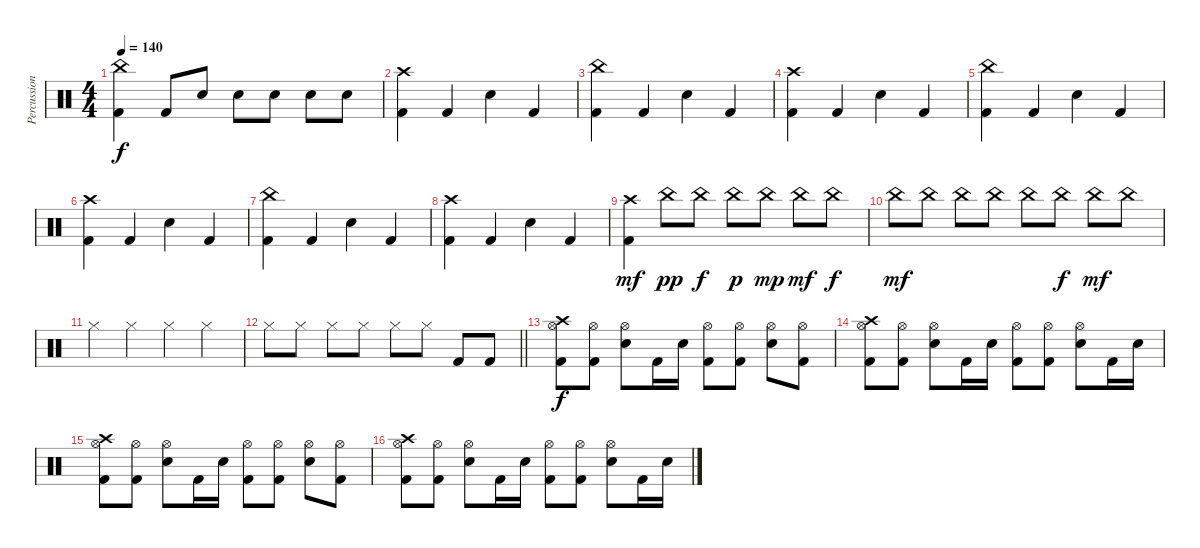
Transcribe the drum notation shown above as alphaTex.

\track ("Percussion" "Percussion") {instrument percussion}
\staff {score}
\articulation defaults
\ts (4 4)
\tempo 140
\clef neutral
\ks c
("Kick (hit) 2" "China (hit)").4{dy f} "Kick (hit) 2".8 "Snare (hit) 2".8 "Snare (hit) 2".8 "Snare (hit) 2".8 "Snare (hit) 2".8 "Snare (hit) 2".8 |
("Kick (hit) 2" "Crash high (hit)").4 "Kick (hit) 2".4 "Snare (hit) 2".4 "Kick (hit) 2".4 |
("Kick (hit) 2" "China (hit)").4 "Kick (hit) 2".4 "Snare (hit) 2".4 "Kick (hit) 2".4 |
("Kick (hit) 2" "Crash high (hit)").4 "Kick (hit) 2".4 "Snare (hit) 2".4 "Kick (hit) 2".4 |
("Kick (hit) 2" "China (hit)").4 "Kick (hit) 2".4 "Snare (hit) 2".4 "Kick (hit) 2".4 |
("Kick (hit) 2" "Crash high (hit)").4 "Kick (hit) 2".4 "Snare (hit) 2".4 "Kick (hit) 2".4 |
("Kick (hit) 2" "China (hit)").4 "Kick (hit) 2".4 "Snare (hit) 2".4 "Kick (hit) 2".4 |
("Kick (hit) 2" "Crash high (hit)").4 "Kick (hit) 2".4 "Snare (hit) 2".4 "Kick (hit) 2".4 |
("Kick (hit) 2" "Crash high (hit)").4{dy mf} "China (hit)".8{dy pp} "China (hit)".8{dy f} "China (hit)".8{dy p} "China (hit)".8{dy mp} "China (hit)".8{dy mf} "China (hit)".8{dy f} |
"China (hit)".8{dy mf} "China (hit)".8 "China (hit)".8 "China (hit)".8 "China (hit)".8 "China (hit)".8{dy f} "China (hit)".8{dy mf} "China (hit)".8 |
"Hi-Hat (closed)".4 "Hi-Hat (closed)".4 "Hi-Hat (closed)".4 "Hi-Hat (closed)".4 |
\barLineRight lightlight "Hi-Hat (closed)".8 "Hi-Hat (closed)".8 "Hi-Hat (closed)".8 "Hi-Hat (closed)".8 "Hi-Hat (closed)".8 "Hi-Hat (closed)".8 "Kick (hit) 2".8 "Kick (hit) 2".8
|
\section ("" "")
("Hi-Hat (open)" "Crash high (hit)" "Kick (hit) 2").8{dy f} ("Hi-Hat (open)" "Kick (hit) 2").8 ("Hi-Hat (open)" "Snare (hit) 2").8 "Kick (hit) 2".16 "Snare (hit) 2".16 ("Hi-Hat (open)" "Kick (hit) 2").8 ("Hi-Hat (open)" "Kick (hit) 2").8 ("Hi-Hat (open)" "Snare (hit) 2").8 ("Hi-Hat (open)" "Kick (hit) 2").8 |
("Hi-Hat (open)" "Crash high (hit)" "Kick (hit) 2").8 ("Hi-Hat (open)" "Kick (hit) 2").8 ("Hi-Hat (open)" "Snare (hit) 2").8 "Kick (hit) 2".16 "Snare (hit) 2".16 ("Hi-Hat (open)" "Kick (hit) 2").8 ("Hi-Hat (open)" "Kick (hit) 2").8 ("Hi-Hat (open)" "Snare (hit) 2").8 "Kick (hit) 2".16 "Snare (hit) 2".16 |
("Hi-Hat (open)" "Crash high (hit)" "Kick (hit) 2").8 ("Hi-Hat (open)" "Kick (hit) 2").8 ("Hi-Hat (open)" "Snare (hit) 2").8 "Kick (hit) 2".16 "Snare (hit) 2".16 ("Hi-Hat (open)" "Kick (hit) 2").8 ("Hi-Hat (open)" "Kick (hit) 2").8 ("Hi-Hat (open)" "Snare (hit) 2").8 ("Hi-Hat (open)" "Kick (hit) 2").8 |
("Hi-Hat (open)" "Crash high (hit)" "Kick (hit) 2").8 ("Hi-Hat (open)" "Kick (hit) 2").8 ("Hi-Hat (open)" "Snare (hit) 2").8 "Kick (hit) 2".16 "Snare (hit) 2".16 ("Hi-Hat (open)" "Kick (hit) 2").8 ("Hi-Hat (open)" "Kick (hit) 2").8 ("Hi-Hat (open)" "Snare (hit) 2").8 "Kick (hit) 2".16 "Snare (hit) 2".16
